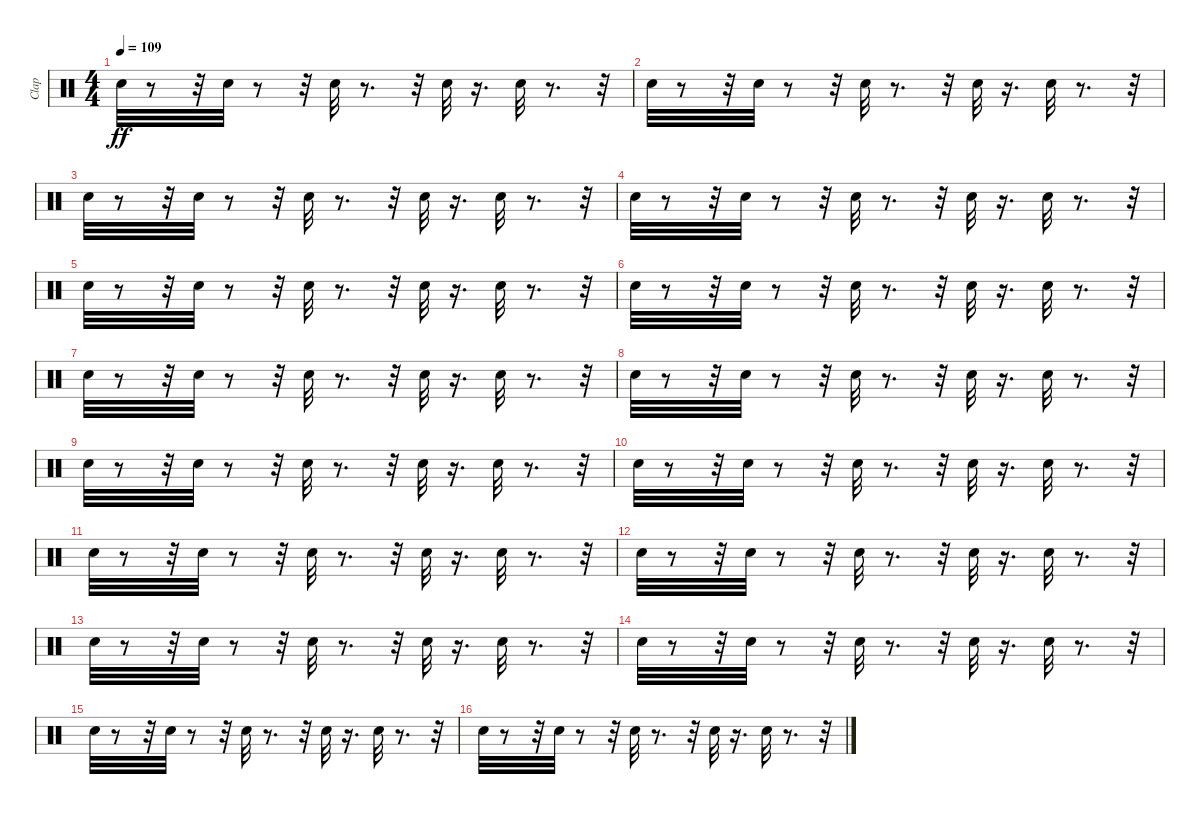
\track ("Clap" "Clap") {instrument percussion}
\staff {score}
\articulation defaults
\ts (4 4)
\tempo 109
\clef neutral
\ks c "Hand Clap (hit)".32{dy ff}
r.8 r.32 "Hand Clap (hit)".32 r.8 r.32 "Hand Clap (hit)".32 r.8{d} r.32 "Hand Clap (hit)".32 r.16{d} "Hand Clap (hit)".32 r.8{d} r.32 |
"Hand Clap (hit)".32 r.8 r.32 "Hand Clap (hit)".32 r.8 r.32 "Hand Clap (hit)".32 r.8{d} r.32 "Hand Clap (hit)".32 r.16{d} "Hand Clap (hit)".32 r.8{d} r.32 |
"Hand Clap (hit)".32 r.8 r.32 "Hand Clap (hit)".32 r.8 r.32 "Hand Clap (hit)".32 r.8{d} r.32 "Hand Clap (hit)".32 r.16{d} "Hand Clap (hit)".32 r.8{d} r.32 |
"Hand Clap (hit)".32 r.8 r.32 "Hand Clap (hit)".32 r.8 r.32 "Hand Clap (hit)".32 r.8{d} r.32 "Hand Clap (hit)".32 r.16{d} "Hand Clap (hit)".32 r.8{d} r.32 |
"Hand Clap (hit)".32 r.8 r.32 "Hand Clap (hit)".32 r.8 r.32 "Hand Clap (hit)".32 r.8{d} r.32 "Hand Clap (hit)".32 r.16{d} "Hand Clap (hit)".32 r.8{d} r.32 |
"Hand Clap (hit)".32 r.8 r.32 "Hand Clap (hit)".32 r.8 r.32 "Hand Clap (hit)".32 r.8{d} r.32 "Hand Clap (hit)".32 r.16{d} "Hand Clap (hit)".32 r.8{d} r.32 |
"Hand Clap (hit)".32 r.8 r.32 "Hand Clap (hit)".32 r.8 r.32 "Hand Clap (hit)".32 r.8{d} r.32 "Hand Clap (hit)".32 r.16{d} "Hand Clap (hit)".32 r.8{d} r.32 |
"Hand Clap (hit)".32 r.8 r.32 "Hand Clap (hit)".32 r.8 r.32 "Hand Clap (hit)".32 r.8{d} r.32 "Hand Clap (hit)".32 r.16{d} "Hand Clap (hit)".32 r.8{d} r.32 |
"Hand Clap (hit)".32 r.8 r.32 "Hand Clap (hit)".32 r.8 r.32 "Hand Clap (hit)".32 r.8{d} r.32 "Hand Clap (hit)".32 r.16{d} "Hand Clap (hit)".32 r.8{d} r.32 |
"Hand Clap (hit)".32 r.8 r.32 "Hand Clap (hit)".32 r.8 r.32 "Hand Clap (hit)".32 r.8{d} r.32 "Hand Clap (hit)".32 r.16{d} "Hand Clap (hit)".32 r.8{d} r.32 |
"Hand Clap (hit)".32 r.8 r.32 "Hand Clap (hit)".32 r.8 r.32 "Hand Clap (hit)".32 r.8{d} r.32 "Hand Clap (hit)".32 r.16{d} "Hand Clap (hit)".32 r.8{d} r.32 |
"Hand Clap (hit)".32 r.8 r.32 "Hand Clap (hit)".32 r.8 r.32 "Hand Clap (hit)".32 r.8{d} r.32 "Hand Clap (hit)".32 r.16{d} "Hand Clap (hit)".32 r.8{d} r.32 |
"Hand Clap (hit)".32 r.8 r.32 "Hand Clap (hit)".32 r.8 r.32 "Hand Clap (hit)".32 r.8{d} r.32 "Hand Clap (hit)".32 r.16{d} "Hand Clap (hit)".32 r.8{d} r.32 |
"Hand Clap (hit)".32 r.8 r.32 "Hand Clap (hit)".32 r.8 r.32 "Hand Clap (hit)".32 r.8{d} r.32 "Hand Clap (hit)".32 r.16{d} "Hand Clap (hit)".32 r.8{d} r.32 |
"Hand Clap (hit)".32 r.8 r.32 "Hand Clap (hit)".32 r.8 r.32 "Hand Clap (hit)".32 r.8{d} r.32 "Hand Clap (hit)".32 r.16{d} "Hand Clap (hit)".32 r.8{d} r.32 |
"Hand Clap (hit)".32 r.8 r.32 "Hand Clap (hit)".32 r.8 r.32 "Hand Clap (hit)".32 r.8{d} r.32 "Hand Clap (hit)".32 r.16{d} "Hand Clap (hit)".32 r.8{d} r.32
